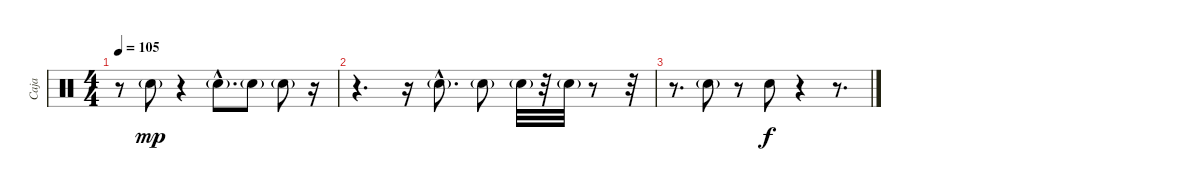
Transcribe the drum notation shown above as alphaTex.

\track ("Caja" "Caja") {instrument percussion}
\staff {score}
\articulation defaults
\ts (4 4)
\tempo 105
\clef neutral
\ks c
r.8{dy mp} "Electric Snare (hit)"{g}.8 r.4 "Electric Snare (hit)"{g hac}.8{d} "Electric Snare (hit)"{g}.8 "Electric Snare (hit)"{g}.8 r.16 |
r.4{d} r.16 "Electric Snare (hit)"{g hac}.8{d} "Electric Snare (hit)"{g}.8 "Electric Snare (hit)"{g}.32 r.32 "Electric Snare (hit)"{g}.32 r.8 r.32 |
r.8{d} "Electric Snare (hit)"{g}.8 r.8 "Electric Snare (hit)".8{dy f} r.4 r.8{d}
